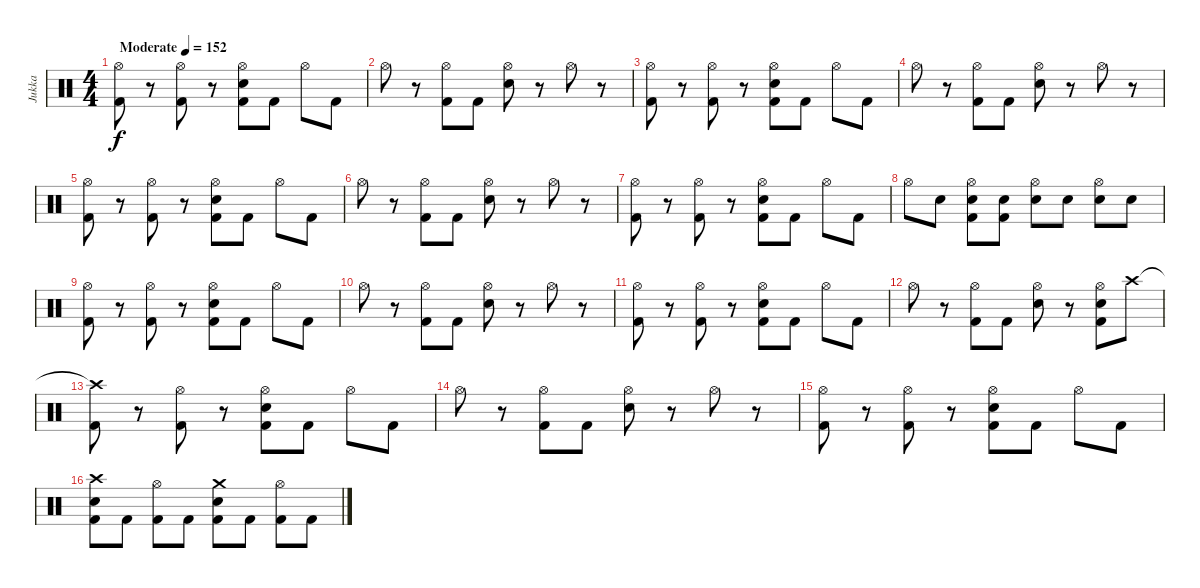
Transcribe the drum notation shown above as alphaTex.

\track ("Jukka" "Jukka") {instrument percussion}
\staff {score}
\articulation defaults
\ts (4 4)
\tempo (152 "Moderate")
\clef neutral
\ks c
("Hi-Hat (open)" "Kick (hit) 2").8{dy f} r.8 ("Hi-Hat (open)" "Kick (hit) 2").8 r.8 ("Hi-Hat (open)" "Electric Snare (hit)" "Kick (hit) 2").8 "Kick (hit) 2".8 "Hi-Hat (open)".8 "Kick (hit) 2".8 |
"Hi-Hat (open)".8 r.8 ("Hi-Hat (open)" "Kick (hit) 2").8 "Kick (hit) 2".8 ("Hi-Hat (open)" "Electric Snare (hit)").8 r.8 "Hi-Hat (open)".8 r.8 |
("Hi-Hat (open)" "Kick (hit) 2").8 r.8 ("Hi-Hat (open)" "Kick (hit) 2").8 r.8 ("Hi-Hat (open)" "Electric Snare (hit)" "Kick (hit) 2").8 "Kick (hit) 2".8 "Hi-Hat (open)".8 "Kick (hit) 2".8 |
"Hi-Hat (open)".8 r.8 ("Hi-Hat (open)" "Kick (hit) 2").8 "Kick (hit) 2".8 ("Hi-Hat (open)" "Electric Snare (hit)").8 r.8 "Hi-Hat (open)".8 r.8 |
("Hi-Hat (open)" "Kick (hit) 2").8 r.8 ("Hi-Hat (open)" "Kick (hit) 2").8 r.8 ("Hi-Hat (open)" "Electric Snare (hit)" "Kick (hit) 2").8 "Kick (hit) 2".8 "Hi-Hat (open)".8 "Kick (hit) 2".8 |
"Hi-Hat (open)".8 r.8 ("Hi-Hat (open)" "Kick (hit) 2").8 "Kick (hit) 2".8 ("Hi-Hat (open)" "Electric Snare (hit)").8 r.8 "Hi-Hat (open)".8 r.8 |
("Hi-Hat (open)" "Kick (hit) 2").8 r.8 ("Hi-Hat (open)" "Kick (hit) 2").8 r.8 ("Hi-Hat (open)" "Electric Snare (hit)" "Kick (hit) 2").8 "Kick (hit) 2".8 "Hi-Hat (open)".8 "Kick (hit) 2".8 |
"Hi-Hat (open)".8 "Electric Snare (hit)".8 ("Hi-Hat (open)" "Electric Snare (hit)" "Kick (hit) 2").8 ("Electric Snare (hit)" "Kick (hit) 2").8 ("Hi-Hat (open)" "Electric Snare (hit)").8 "Electric Snare (hit)".8 ("Hi-Hat (open)" "Electric Snare (hit)").8 "Electric Snare (hit)".8 |
("Hi-Hat (open)" "Kick (hit) 2").8 r.8 ("Hi-Hat (open)" "Kick (hit) 2").8 r.8 ("Hi-Hat (open)" "Electric Snare (hit)" "Kick (hit) 2").8 "Kick (hit) 2".8 "Hi-Hat (open)".8 "Kick (hit) 2".8 |
"Hi-Hat (open)".8 r.8 ("Hi-Hat (open)" "Kick (hit) 2").8 "Kick (hit) 2".8 ("Hi-Hat (open)" "Electric Snare (hit)").8 r.8 "Hi-Hat (open)".8 r.8 |
("Hi-Hat (open)" "Kick (hit) 2").8 r.8 ("Hi-Hat (open)" "Kick (hit) 2").8 r.8 ("Hi-Hat (open)" "Electric Snare (hit)" "Kick (hit) 2").8 "Kick (hit) 2".8 "Hi-Hat (open)".8 "Kick (hit) 2".8 |
"Hi-Hat (open)".8 r.8 ("Hi-Hat (open)" "Kick (hit) 2").8 "Kick (hit) 2".8 ("Hi-Hat (open)" "Electric Snare (hit)").8 r.8 ("Hi-Hat (open)" "Electric Snare (hit)" "Kick (hit) 2").8 "Crash high (hit)".8 |
("Crash high (hit)"{t} "Kick (hit) 2").8 r.8 ("Hi-Hat (open)" "Kick (hit) 2").8 r.8 ("Hi-Hat (open)" "Electric Snare (hit)" "Kick (hit) 2").8 "Kick (hit) 2".8 "Hi-Hat (open)".8 "Kick (hit) 2".8 |
"Hi-Hat (open)".8 r.8 ("Hi-Hat (open)" "Kick (hit) 2").8 "Kick (hit) 2".8 ("Hi-Hat (open)" "Electric Snare (hit)").8 r.8 "Hi-Hat (open)".8 r.8 |
("Hi-Hat (open)" "Kick (hit) 2").8 r.8 ("Hi-Hat (open)" "Kick (hit) 2").8 r.8 ("Hi-Hat (open)" "Electric Snare (hit)" "Kick (hit) 2").8 "Kick (hit) 2".8 "Hi-Hat (open)".8 "Kick (hit) 2".8 |
("Crash high (hit)" "Electric Snare (hit)" "Kick (hit) 2").8 "Kick (hit) 2".8 ("Hi-Hat (open)" "Kick (hit) 2").8 "Kick (hit) 2".8 ("Crash medium (hit)" "Electric Snare (hit)" "Kick (hit) 2").8 "Kick (hit) 2".8 ("Hi-Hat (open)" "Kick (hit) 2").8 "Kick (hit) 2".8
